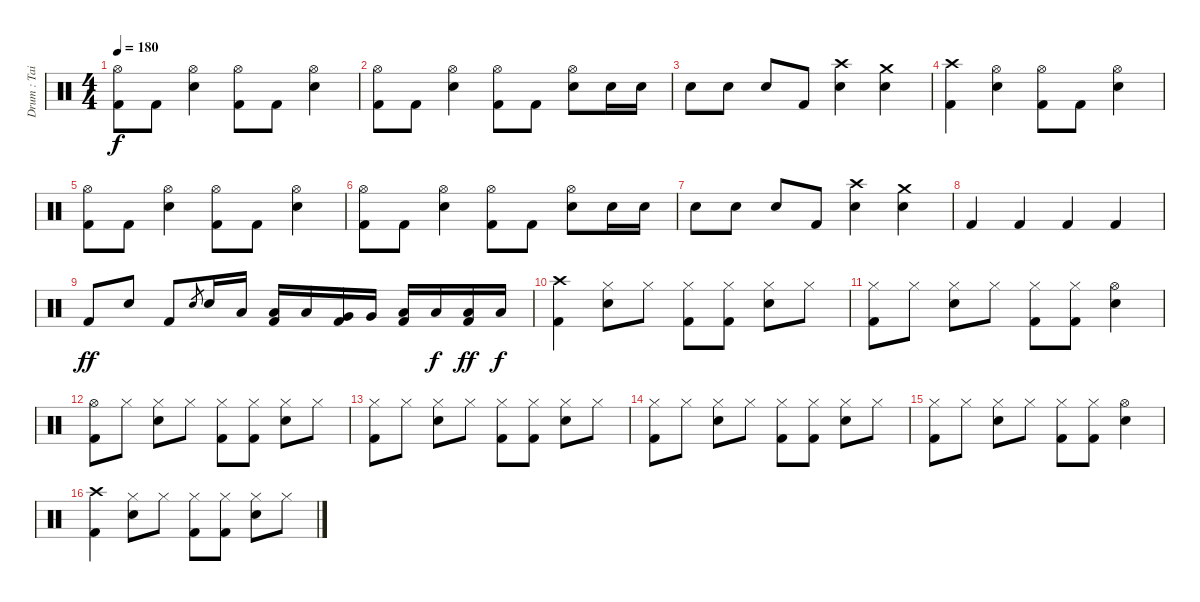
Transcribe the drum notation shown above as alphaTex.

\track ("Drum : Tainaka Ritsu" "Drum : Tai") {instrument percussion}
\staff {score}
\articulation defaults
\ts (4 4)
\tempo 180
\clef neutral
\ks c
("Hi-Hat (open)" "Kick (hit) 2").8{dy f} "Kick (hit) 2".8 ("Hi-Hat (open)" "Snare (hit) 2").4 ("Hi-Hat (open)" "Kick (hit) 2").8 "Kick (hit) 2".8 ("Hi-Hat (open)" "Snare (hit) 2").4 |
("Hi-Hat (open)" "Kick (hit) 2").8 "Kick (hit) 2".8 ("Hi-Hat (open)" "Snare (hit) 2").4 ("Hi-Hat (open)" "Kick (hit) 2").8 "Kick (hit) 2".8 ("Hi-Hat (open)" "Snare (hit) 2").8 "Snare (hit) 2".16 "Snare (hit) 2".16 |
"Snare (hit) 2".8 "Snare (hit) 2".8 "Snare (hit) 2".8 "Kick (hit) 2".8 ("Crash high (hit)" "Snare (hit) 2").4 ("Crash medium (hit)" "Snare (hit) 2").4 |
("Crash high (hit)" "Kick (hit) 2").4 ("Hi-Hat (open)" "Snare (hit) 2").4 ("Hi-Hat (open)" "Kick (hit) 2").8 "Kick (hit) 2".8 ("Hi-Hat (open)" "Snare (hit) 2").4 |
("Hi-Hat (open)" "Kick (hit) 2").8 "Kick (hit) 2".8 ("Hi-Hat (open)" "Snare (hit) 2").4 ("Hi-Hat (open)" "Kick (hit) 2").8 "Kick (hit) 2".8 ("Hi-Hat (open)" "Snare (hit) 2").4 |
("Hi-Hat (open)" "Kick (hit) 2").8 "Kick (hit) 2".8 ("Hi-Hat (open)" "Snare (hit) 2").4 ("Hi-Hat (open)" "Kick (hit) 2").8 "Kick (hit) 2".8 ("Hi-Hat (open)" "Snare (hit) 2").8 "Snare (hit) 2".16 "Snare (hit) 2".16 |
"Snare (hit) 2".8 "Snare (hit) 2".8 "Snare (hit) 2".8 "Kick (hit) 2".8 ("Crash high (hit)" "Snare (hit) 2").4 ("Crash medium (hit)" "Snare (hit) 2").4 |
"Kick (hit) 2".4 "Kick (hit) 2".4 "Kick (hit) 2".4 "Kick (hit) 2".4 |
"Kick (hit) 2".8{dy ff} "Snare (hit) 2".8 "Kick (hit) 2".8 "Snare (hit) 2".8{gr} "Snare (hit) 2".16 "Low Tom (hit)".16 ("Low Tom (hit)" "Kick (hit) 2").16 "Low Tom (hit)".16 ("Very Low Tom (hit)" "Kick (hit) 2").16 "Very Low Tom (hit)".16 ("Low Floor Tom (hit)" "Kick (hit) 2").16 "Low Floor Tom (hit)".16{dy f} ("Low Floor Tom (hit)" "Kick (hit) 2").16{dy ff} "Low Floor Tom (hit)".16{dy f} |
("Crash high (hit)" "Kick (hit) 2").4 ("Hi-Hat (closed)" "Snare (hit) 2").8 "Hi-Hat (closed)".8 ("Hi-Hat (closed)" "Kick (hit) 2").8 ("Hi-Hat (closed)" "Kick (hit) 2").8 ("Hi-Hat (closed)" "Snare (hit) 2").8 "Hi-Hat (closed)".8 |
("Hi-Hat (closed)" "Kick (hit) 2").8 "Hi-Hat (closed)".8 ("Hi-Hat (closed)" "Snare (hit) 2").8 "Hi-Hat (closed)".8 ("Hi-Hat (closed)" "Kick (hit) 2").8 ("Hi-Hat (closed)" "Kick (hit) 2").8 ("Hi-Hat (open)" "Snare (hit) 2").4 |
("Hi-Hat (open)" "Kick (hit) 2").8 "Hi-Hat (closed)".8 ("Hi-Hat (closed)" "Snare (hit) 2").8 "Hi-Hat (closed)".8 ("Hi-Hat (closed)" "Kick (hit) 2").8 ("Hi-Hat (closed)" "Kick (hit) 2").8 ("Hi-Hat (closed)" "Snare (hit) 2").8 "Hi-Hat (closed)".8 |
("Hi-Hat (closed)" "Kick (hit) 2").8 "Hi-Hat (closed)".8 ("Hi-Hat (closed)" "Snare (hit) 2").8 "Hi-Hat (closed)".8 ("Hi-Hat (closed)" "Kick (hit) 2").8 ("Hi-Hat (closed)" "Kick (hit) 2").8 ("Hi-Hat (closed)" "Snare (hit) 2").8 "Hi-Hat (closed)".8 |
("Hi-Hat (closed)" "Kick (hit) 2").8 "Hi-Hat (closed)".8 ("Hi-Hat (closed)" "Snare (hit) 2").8 "Hi-Hat (closed)".8 ("Hi-Hat (closed)" "Kick (hit) 2").8 ("Hi-Hat (closed)" "Kick (hit) 2").8 ("Hi-Hat (closed)" "Snare (hit) 2").8 "Hi-Hat (closed)".8 |
("Hi-Hat (closed)" "Kick (hit) 2").8 "Hi-Hat (closed)".8 ("Hi-Hat (closed)" "Snare (hit) 2").8 "Hi-Hat (closed)".8 ("Hi-Hat (closed)" "Kick (hit) 2").8 ("Hi-Hat (closed)" "Kick (hit) 2").8 ("Hi-Hat (open)" "Snare (hit) 2").4 |
("Crash high (hit)" "Kick (hit) 2").4 ("Hi-Hat (closed)" "Snare (hit) 2").8 "Hi-Hat (closed)".8 ("Hi-Hat (closed)" "Kick (hit) 2").8 ("Hi-Hat (closed)" "Kick (hit) 2").8 ("Hi-Hat (closed)" "Snare (hit) 2").8 "Hi-Hat (closed)".8
